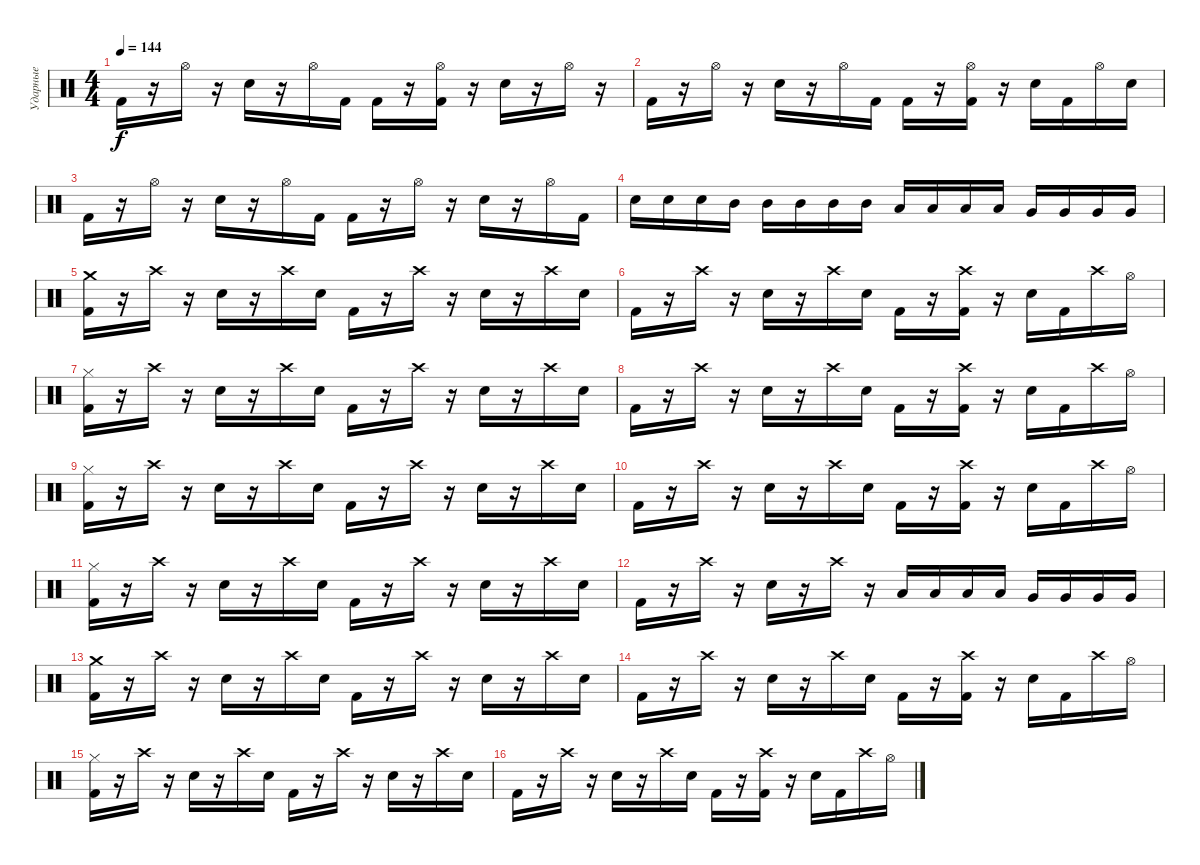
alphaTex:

\track ("Ударные" "Ударные") {instrument percussion}
\staff {score}
\articulation defaults
\ts (4 4)
\tempo 144
\clef neutral
\ks c "Kick (hit) 2".16{dy f}
r.16 "Hi-Hat (open)".16 r.16 "Electric Snare (hit)".16 r.16 "Hi-Hat (open)".16 "Kick (hit) 2".16 "Kick (hit) 2".16 r.16 ("Hi-Hat (open)" "Kick (hit) 2").16 r.16 "Electric Snare (hit)".16 r.16 "Hi-Hat (open)".16 r.16 |
"Kick (hit) 2".16 r.16 "Hi-Hat (open)".16 r.16 "Electric Snare (hit)".16 r.16 "Hi-Hat (open)".16 "Kick (hit) 2".16 "Kick (hit) 2".16 r.16 ("Hi-Hat (open)" "Kick (hit) 2").16 r.16 "Electric Snare (hit)".16 "Kick (hit) 2".16 "Hi-Hat (open)".16 "Electric Snare (hit)".16 |
"Kick (hit) 2".16 r.16 "Hi-Hat (open)".16 r.16 "Electric Snare (hit)".16 r.16 "Hi-Hat (open)".16 "Kick (hit) 2".16 "Kick (hit) 2".16 r.16 "Hi-Hat (open)".16 r.16 "Electric Snare (hit)".16 r.16 "Hi-Hat (open)".16 "Kick (hit) 2".16 |
"Electric Snare (hit)".16 "Electric Snare (hit)".16 "Electric Snare (hit)".16 "Mid Tom (hit)".16 "Mid Tom (hit)".16 "Mid Tom (hit)".16 "Mid Tom (hit)".16 "Mid Tom (hit)".16 "Low Tom (hit)".16 "Low Tom (hit)".16 "Low Tom (hit)".16 "Low Tom (hit)".16 "Very Low Tom (hit)".16 "Very Low Tom (hit)".16 "Very Low Tom (hit)".16 "Very Low Tom (hit)".16 |
("Crash medium (hit)" "Kick (hit) 2").16 r.16 "Crash high (hit)".16 r.16 "Electric Snare (hit)".16 r.16 "Crash high (hit)".16 "Electric Snare (hit)".16 "Kick (hit) 2".16 r.16 "Crash high (hit)".16 r.16 "Electric Snare (hit)".16 r.16 "Crash high (hit)".16 "Electric Snare (hit)".16 |
"Kick (hit) 2".16 r.16 "Crash high (hit)".16 r.16 "Electric Snare (hit)".16 r.16 "Crash high (hit)".16 "Electric Snare (hit)".16 "Kick (hit) 2".16 r.16 ("Crash high (hit)" "Kick (hit) 2").16 r.16 "Electric Snare (hit)".16 "Kick (hit) 2".16 "Crash high (hit)".16 "Hi-Hat (open)".16 |
("Hi-Hat (closed)" "Kick (hit) 2").16 r.16 "Crash high (hit)".16 r.16 "Electric Snare (hit)".16 r.16 "Crash high (hit)".16 "Electric Snare (hit)".16 "Kick (hit) 2".16 r.16 "Crash high (hit)".16 r.16 "Electric Snare (hit)".16 r.16 "Crash high (hit)".16 "Electric Snare (hit)".16 |
"Kick (hit) 2".16 r.16 "Crash high (hit)".16 r.16 "Electric Snare (hit)".16 r.16 "Crash high (hit)".16 "Electric Snare (hit)".16 "Kick (hit) 2".16 r.16 ("Crash high (hit)" "Kick (hit) 2").16 r.16 "Electric Snare (hit)".16 "Kick (hit) 2".16 "Crash high (hit)".16 "Hi-Hat (open)".16 |
("Hi-Hat (closed)" "Kick (hit) 2").16 r.16 "Crash high (hit)".16 r.16 "Electric Snare (hit)".16 r.16 "Crash high (hit)".16 "Electric Snare (hit)".16 "Kick (hit) 2".16 r.16 "Crash high (hit)".16 r.16 "Electric Snare (hit)".16 r.16 "Crash high (hit)".16 "Electric Snare (hit)".16 |
"Kick (hit) 2".16 r.16 "Crash high (hit)".16 r.16 "Electric Snare (hit)".16 r.16 "Crash high (hit)".16 "Electric Snare (hit)".16 "Kick (hit) 2".16 r.16 ("Crash high (hit)" "Kick (hit) 2").16 r.16 "Electric Snare (hit)".16 "Kick (hit) 2".16 "Crash high (hit)".16 "Hi-Hat (open)".16 |
("Hi-Hat (closed)" "Kick (hit) 2").16 r.16 "Crash high (hit)".16 r.16 "Electric Snare (hit)".16 r.16 "Crash high (hit)".16 "Electric Snare (hit)".16 "Kick (hit) 2".16 r.16 "Crash high (hit)".16 r.16 "Electric Snare (hit)".16 r.16 "Crash high (hit)".16 "Electric Snare (hit)".16 |
"Kick (hit) 2".16 r.16 "Crash high (hit)".16 r.16 "Electric Snare (hit)".16 r.16 "Crash high (hit)".16 r.16 "Low Tom (hit)".16 "Low Tom (hit)".16 "Low Tom (hit)".16 "Low Tom (hit)".16 "Very Low Tom (hit)".16 "Very Low Tom (hit)".16 "Very Low Tom (hit)".16 "Very Low Tom (hit)".16 |
("Crash medium (hit)" "Kick (hit) 2").16 r.16 "Crash high (hit)".16 r.16 "Electric Snare (hit)".16 r.16 "Crash high (hit)".16 "Electric Snare (hit)".16 "Kick (hit) 2".16 r.16 "Crash high (hit)".16 r.16 "Electric Snare (hit)".16 r.16 "Crash high (hit)".16 "Electric Snare (hit)".16 |
"Kick (hit) 2".16 r.16 "Crash high (hit)".16 r.16 "Electric Snare (hit)".16 r.16 "Crash high (hit)".16 "Electric Snare (hit)".16 "Kick (hit) 2".16 r.16 ("Crash high (hit)" "Kick (hit) 2").16 r.16 "Electric Snare (hit)".16 "Kick (hit) 2".16 "Crash high (hit)".16 "Hi-Hat (open)".16 |
("Hi-Hat (closed)" "Kick (hit) 2").16 r.16 "Crash high (hit)".16 r.16 "Electric Snare (hit)".16 r.16 "Crash high (hit)".16 "Electric Snare (hit)".16 "Kick (hit) 2".16 r.16 "Crash high (hit)".16 r.16 "Electric Snare (hit)".16 r.16 "Crash high (hit)".16 "Electric Snare (hit)".16 |
"Kick (hit) 2".16 r.16 "Crash high (hit)".16 r.16 "Electric Snare (hit)".16 r.16 "Crash high (hit)".16 "Electric Snare (hit)".16 "Kick (hit) 2".16 r.16 ("Crash high (hit)" "Kick (hit) 2").16 r.16 "Electric Snare (hit)".16 "Kick (hit) 2".16 "Crash high (hit)".16 "Hi-Hat (open)".16
